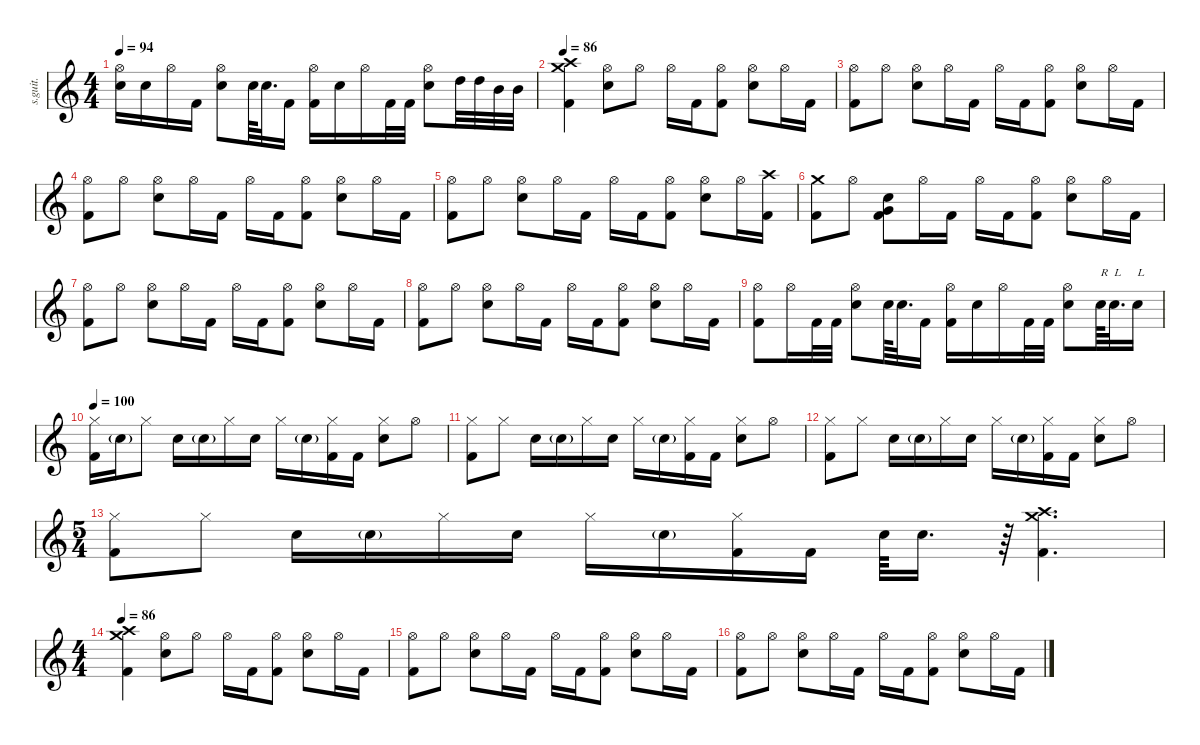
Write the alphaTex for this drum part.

\defaultSystemsLayout 4
\hideDynamics
\bracketExtendMode nobrackets
\track ("David Silveria" "s.guit.") {instrument percussion}
\staff {score}
\articulation defaults
\ts (4 4)
\tempo 94
\clef g2
\ks c
("Snare (hit) 2" "Hi-Hat (open)").16{dy f} "Snare (hit) 2".16 "Hi-Hat (open)".16 "Kick (hit) 2".16 ("Snare (hit) 2" "Hi-Hat (open)").8 "Snare (hit) 2".64 "Snare (hit) 2".32{d} "Kick (hit) 2".16 ("Kick (hit) 2" "Hi-Hat (open)").16 "Snare (hit) 2".16 "Hi-Hat (open)".16 "Kick (hit) 2".32 "Kick (hit) 2".32 ("Snare (hit) 2" "Hi-Hat (open)").8 "High Tom (hit)".32 "High Tom (hit)".32 "Mid Tom (hit)".32 "Mid Tom (hit)".32 |
\tempo 86
("Kick (hit) 2" "Crash high (hit)" "Crash medium (hit)").4{dy fff} ("Snare (hit) 2" "Hi-Hat (open)").8{dy f} "Hi-Hat (open)".8 "Hi-Hat (open)".16 "Kick (hit) 2".16 ("Hi-Hat (open)" "Kick (hit) 2").8 ("Hi-Hat (open)" "Snare (hit) 2").8 "Hi-Hat (open)".16 "Kick (hit) 2".16 |
("Kick (hit) 2" "Hi-Hat (open)").8 "Hi-Hat (open)".8 ("Snare (hit) 2" "Hi-Hat (open)").8 "Hi-Hat (open)".16 "Kick (hit) 2".16 "Hi-Hat (open)".16 "Kick (hit) 2".16 ("Kick (hit) 2" "Hi-Hat (open)").8 ("Hi-Hat (open)" "Snare (hit) 2").8 "Hi-Hat (open)".16 "Kick (hit) 2".16 |
("Kick (hit) 2" "Hi-Hat (open)").8 "Hi-Hat (open)".8 ("Snare (hit) 2" "Hi-Hat (open)").8 "Hi-Hat (open)".16 "Kick (hit) 2".16 "Hi-Hat (open)".16 "Kick (hit) 2".16 ("Kick (hit) 2" "Hi-Hat (open)").8 ("Hi-Hat (open)" "Snare (hit) 2").8 "Hi-Hat (open)".16 "Kick (hit) 2".16 |
("Kick (hit) 2" "Hi-Hat (open)").8 "Hi-Hat (open)".8 ("Snare (hit) 2" "Hi-Hat (open)").8 "Hi-Hat (open)".16 "Kick (hit) 2".16 "Hi-Hat (open)".16 "Kick (hit) 2".16 ("Kick (hit) 2" "Hi-Hat (open)").8 ("Hi-Hat (open)" "Snare (hit) 2").8 "Hi-Hat (open)".16 ("Kick (hit) 2" "Crash high (hit)").16 |
("Kick (hit) 2" "Crash medium (hit)").8 "Hi-Hat (open)".8 ("Snare (hit) 2" "Kick (hit) 2" "Very Low Tom (hit)").8 "Hi-Hat (open)".16 "Kick (hit) 2".16 "Hi-Hat (open)".16 "Kick (hit) 2".16 ("Kick (hit) 2" "Hi-Hat (open)").8 ("Hi-Hat (open)" "Snare (hit) 2").8 "Hi-Hat (open)".16 "Kick (hit) 2".16 |
("Kick (hit) 2" "Hi-Hat (open)").8 "Hi-Hat (open)".8 ("Snare (hit) 2" "Hi-Hat (open)").8 "Hi-Hat (open)".16 "Kick (hit) 2".16 "Hi-Hat (open)".16 "Kick (hit) 2".16 ("Kick (hit) 2" "Hi-Hat (open)").8 ("Hi-Hat (open)" "Snare (hit) 2").8 "Hi-Hat (open)".16 "Kick (hit) 2".16 |
("Kick (hit) 2" "Hi-Hat (open)").8 "Hi-Hat (open)".8 ("Snare (hit) 2" "Hi-Hat (open)").8 "Hi-Hat (open)".16 "Kick (hit) 2".16 "Hi-Hat (open)".16 "Kick (hit) 2".16 ("Kick (hit) 2" "Hi-Hat (open)").8 ("Hi-Hat (open)" "Snare (hit) 2").8 "Hi-Hat (open)".16 "Kick (hit) 2".16 |
("Kick (hit) 2" "Hi-Hat (open)").8 "Hi-Hat (open)".16 "Kick (hit) 2".32 "Kick (hit) 2".32 ("Snare (hit) 2" "Hi-Hat (open)").8 "Snare (hit) 2".64 "Snare (hit) 2".32{d} "Kick (hit) 2".16 ("Hi-Hat (open)" "Kick (hit) 2").16 "Snare (hit) 2".16 "Hi-Hat (open)".16 "Kick (hit) 2".32 "Kick (hit) 2".32 ("Snare (hit) 2" "Hi-Hat (open)").8 "Snare (hit) 2".64{txt "R"} "Snare (hit) 2".32{d txt "L"} "Snare (hit) 2".16{txt "L"} |
\tempo 100
("Kick (hit) 2" "Hi-Hat (closed)").16 "Snare (hit) 2"{g}.16{dy mp} "Hi-Hat (closed)".8{dy f} "Snare (hit) 2".16 "Snare (hit) 2"{g}.16{dy mf} "Hi-Hat (closed)".16{dy f} "Snare (hit) 2".16 "Hi-Hat (closed)".16 "Snare (hit) 2"{g}.16{dy mp} ("Hi-Hat (closed)" "Kick (hit) 2").16{dy f} "Kick (hit) 2".16 ("Snare (hit) 2" "Hi-Hat (closed)").8 "Hi-Hat (open)".8 |
("Kick (hit) 2" "Hi-Hat (closed)").8 "Hi-Hat (closed)".8 "Snare (hit) 2".16 "Snare (hit) 2"{g}.16{dy mf} "Hi-Hat (closed)".16{dy f} "Snare (hit) 2".16 "Hi-Hat (closed)".16 "Snare (hit) 2"{g}.16{dy mp} ("Hi-Hat (closed)" "Kick (hit) 2").16{dy f} "Kick (hit) 2".16 ("Snare (hit) 2" "Hi-Hat (closed)").8 "Hi-Hat (open)".8 |
("Kick (hit) 2" "Hi-Hat (closed)").8 "Hi-Hat (closed)".8 "Snare (hit) 2".16 "Snare (hit) 2"{g}.16{dy mf} "Hi-Hat (closed)".16{dy f} "Snare (hit) 2".16 "Hi-Hat (closed)".16 "Snare (hit) 2"{g}.16{dy mp} ("Hi-Hat (closed)" "Kick (hit) 2").16{dy f} "Kick (hit) 2".16 ("Snare (hit) 2" "Hi-Hat (closed)").8 "Hi-Hat (open)".8 |
\ts (5 4)
\beaming (8 2 2 2 2)
("Kick (hit) 2" "Hi-Hat (closed)").8 "Hi-Hat (closed)".8 "Snare (hit) 2".16 "Snare (hit) 2"{g}.16{dy mf} "Hi-Hat (closed)".16{dy f} "Snare (hit) 2".16 "Hi-Hat (closed)".16 "Snare (hit) 2"{g}.16{dy mp} ("Hi-Hat (closed)" "Kick (hit) 2").16{dy f} "Kick (hit) 2".16 "Snare (hit) 2".64 "Snare (hit) 2".16{d} r.64 ("Crash high (hit)" "Crash medium (hit)" "Kick (hit) 2").4{d dy fff} |
\ts (4 4)
\beaming (8 2 2 2 2)
\tempo 86
("Kick (hit) 2" "Crash high (hit)" "Crash medium (hit)").4 ("Snare (hit) 2" "Hi-Hat (open)").8{dy f} "Hi-Hat (open)".8 "Hi-Hat (open)".16 "Kick (hit) 2".16 ("Hi-Hat (open)" "Kick (hit) 2").8 ("Hi-Hat (open)" "Snare (hit) 2").8 "Hi-Hat (open)".16 "Kick (hit) 2".16 |
("Kick (hit) 2" "Hi-Hat (open)").8 "Hi-Hat (open)".8 ("Snare (hit) 2" "Hi-Hat (open)").8 "Hi-Hat (open)".16 "Kick (hit) 2".16 "Hi-Hat (open)".16 "Kick (hit) 2".16 ("Kick (hit) 2" "Hi-Hat (open)").8 ("Hi-Hat (open)" "Snare (hit) 2").8 "Hi-Hat (open)".16 "Kick (hit) 2".16 |
("Kick (hit) 2" "Hi-Hat (open)").8 "Hi-Hat (open)".8 ("Snare (hit) 2" "Hi-Hat (open)").8 "Hi-Hat (open)".16 "Kick (hit) 2".16 "Hi-Hat (open)".16 "Kick (hit) 2".16 ("Kick (hit) 2" "Hi-Hat (open)").8 ("Hi-Hat (open)" "Snare (hit) 2").8 "Hi-Hat (open)".16 "Kick (hit) 2".16
